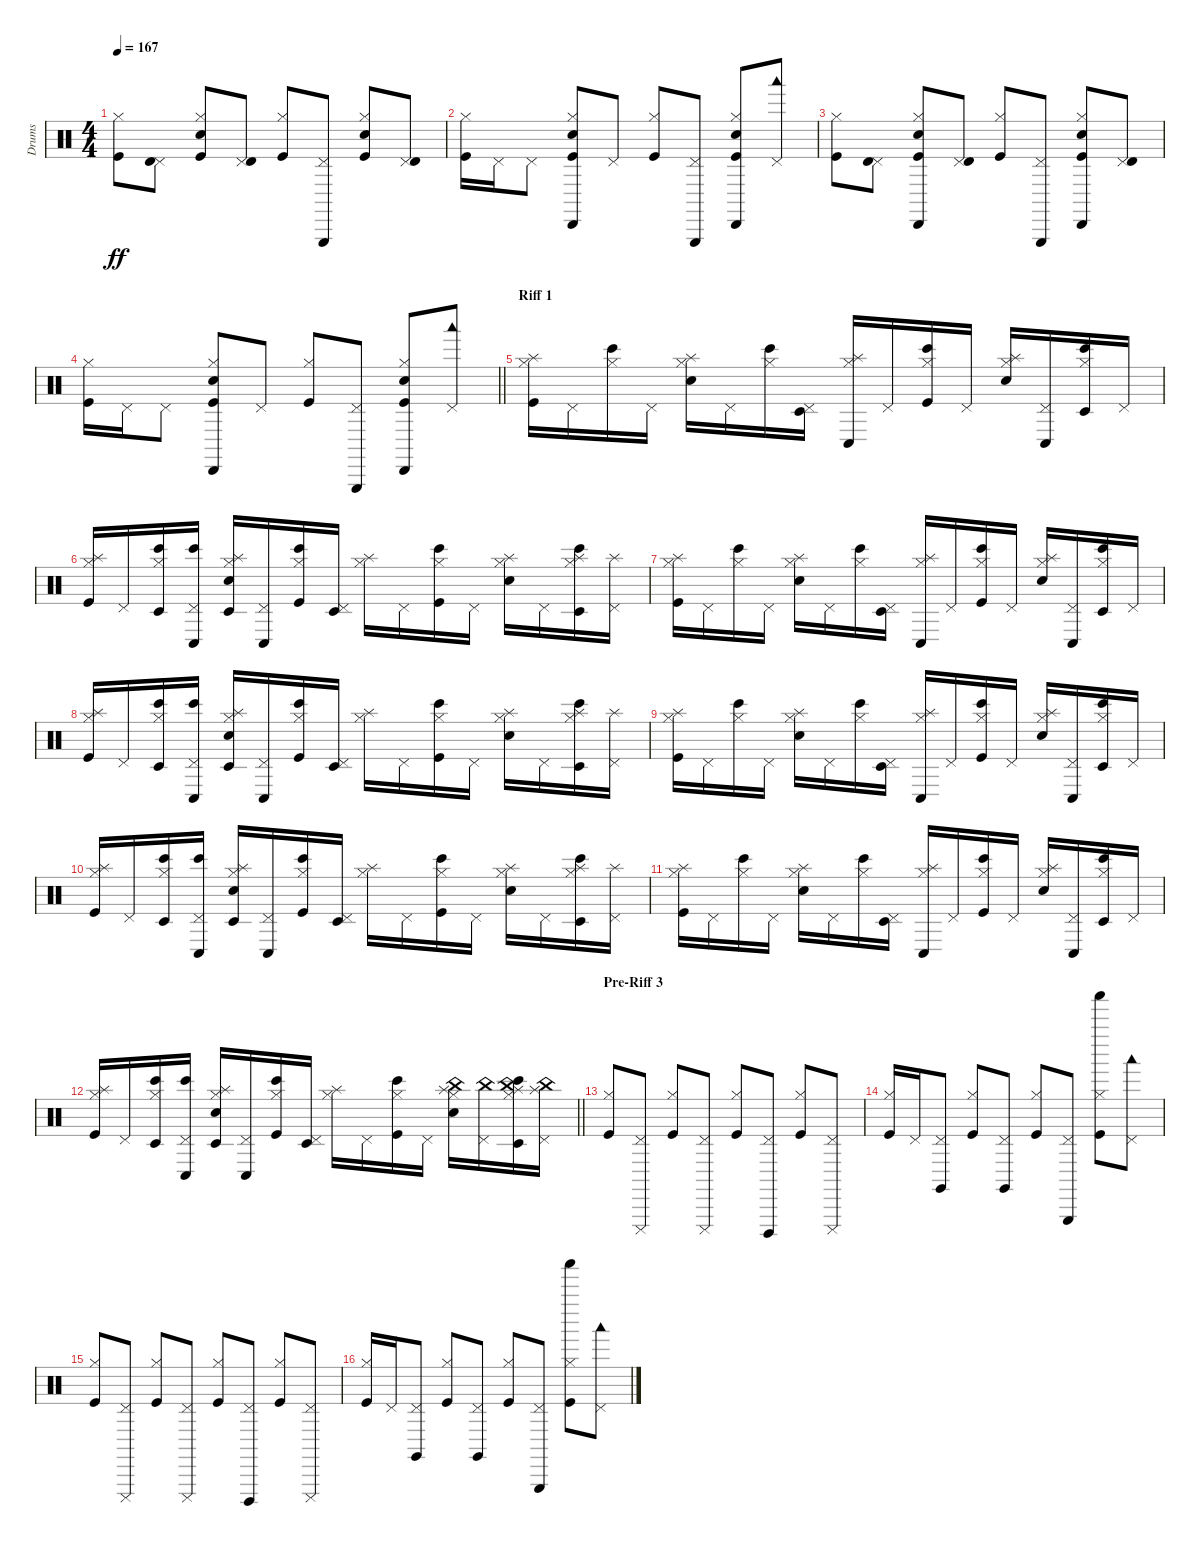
\track ("Drums" "Drums") {instrument percussion}
\staff {score}
\articulation defaults
\ts (4 4)
\tempo 167
\clef neutral
\ks c
("Kick (hit)" "Hi-Hat (closed)").8{dy ff} ("Pedal Hi-Hat (hit)" "Timbale high (hit)").8 ("Kick (hit)" "Hi-Hat (closed)" "Snare (hit) 2").8 ("Pedal Hi-Hat (hit)" "Timbale high (hit)").8 ("Kick (hit)" "Hi-Hat (closed)").8 ("Pedal Hi-Hat (hit)" "Triangle (hit)").8 ("Kick (hit)" "Hi-Hat (closed)" "Snare (hit) 2").8 ("Pedal Hi-Hat (hit)" "Timbale high (hit)").8 |
("Kick (hit)" "Hi-Hat (closed)").16 "Pedal Hi-Hat (hit)".16 "Pedal Hi-Hat (hit)".8 ("Kick (hit)" "Hi-Hat (closed)" "Cabasa (hit)" "Snare (hit) 2").8 "Pedal Hi-Hat (hit)".8 ("Kick (hit)" "Hi-Hat (closed)").8 ("Pedal Hi-Hat (hit)" "Triangle (hit)").8 ("Kick (hit)" "Hi-Hat (closed)" "Cabasa (hit)" "Snare (hit) 2").8 ("Pedal Hi-Hat (hit)" "Woodblock low (hit)").8 |
("Kick (hit)" "Hi-Hat (closed)").8 ("Pedal Hi-Hat (hit)" "Timbale high (hit)").8 ("Kick (hit)" "Hi-Hat (closed)" "Cabasa (hit)" "Snare (hit) 2").8 ("Pedal Hi-Hat (hit)" "Timbale high (hit)").8 ("Kick (hit)" "Hi-Hat (closed)").8 ("Pedal Hi-Hat (hit)" "Triangle (hit)").8 ("Kick (hit)" "Hi-Hat (closed)" "Cabasa (hit)" "Snare (hit) 2").8 ("Pedal Hi-Hat (hit)" "Timbale high (hit)").8 |
\barLineRight lightlight
("Kick (hit)" "Hi-Hat (closed)").16 "Pedal Hi-Hat (hit)".16 "Pedal Hi-Hat (hit)".8 ("Kick (hit)" "Hi-Hat (closed)" "Cabasa (hit)" "Snare (hit) 2").8 "Pedal Hi-Hat (hit)".8 ("Kick (hit)" "Hi-Hat (closed)").8 ("Pedal Hi-Hat (hit)" "Triangle (hit)").8 ("Kick (hit)" "Hi-Hat (closed)" "Cabasa (hit)" "Snare (hit) 2").8 ("Pedal Hi-Hat (hit)" "Woodblock low (hit)").8 |
\section ("" "Riff 1")
("Kick (hit)" "Hi-Hat (closed)" "Splash (hit)").16 "Pedal Hi-Hat (hit)".16 ("Hi-Hat (closed)" "Bongo High (hit)").16 "Pedal Hi-Hat (hit)".16 ("Electric Snare (hit)" "Hi-Hat (closed)" "Splash (hit)").16 "Pedal Hi-Hat (hit)".16 ("Hi-Hat (closed)" "Bongo High (hit)").16 ("Pedal Hi-Hat (hit)" "Timbale low (hit)").16 ("Hi-Hat (closed)" "Splash (hit)" "Conga low (hit)").16 "Pedal Hi-Hat (hit)".16 ("Kick (hit)" "Hi-Hat (closed)" "Bongo High (hit)").16 "Pedal Hi-Hat (hit)".16 ("Electric Snare (hit)" "Hi-Hat (closed)" "Splash (hit)").16 ("Pedal Hi-Hat (hit)" "Conga low (hit)").16 ("Hi-Hat (closed)" "Bongo High (hit)" "Timbale low (hit)").16 "Pedal Hi-Hat (hit)".16 |
("Kick (hit)" "Hi-Hat (closed)" "Splash (hit)").16 "Pedal Hi-Hat (hit)".16 ("Hi-Hat (closed)" "Bongo High (hit)" "Timbale low (hit)").16 ("Pedal Hi-Hat (hit)" "Bongo High (hit)" "Conga low (hit)").16 ("Electric Snare (hit)" "Hi-Hat (closed)" "Splash (hit)" "Timbale low (hit)").16 ("Pedal Hi-Hat (hit)" "Conga low (hit)").16 ("Kick (hit)" "Hi-Hat (closed)" "Bongo High (hit)").16 ("Pedal Hi-Hat (hit)" "Timbale low (hit)").16 ("Hi-Hat (closed)" "Splash (hit)").16 "Pedal Hi-Hat (hit)".16 ("Kick (hit)" "Hi-Hat (closed)" "Bongo High (hit)").16 "Pedal Hi-Hat (hit)".16 ("Electric Snare (hit)" "Hi-Hat (closed)" "Splash (hit)").16 "Pedal Hi-Hat (hit)".16 ("Hi-Hat (closed)" "Splash (hit)" "Bongo High (hit)" "Timbale low (hit)").16 ("Pedal Hi-Hat (hit)" "Splash (hit)").16 |
("Kick (hit)" "Hi-Hat (closed)" "Splash (hit)").16 "Pedal Hi-Hat (hit)".16 ("Hi-Hat (closed)" "Bongo High (hit)").16 "Pedal Hi-Hat (hit)".16 ("Electric Snare (hit)" "Hi-Hat (closed)" "Splash (hit)").16 "Pedal Hi-Hat (hit)".16 ("Hi-Hat (closed)" "Bongo High (hit)").16 ("Pedal Hi-Hat (hit)" "Timbale low (hit)").16 ("Hi-Hat (closed)" "Splash (hit)" "Conga low (hit)").16 "Pedal Hi-Hat (hit)".16 ("Kick (hit)" "Hi-Hat (closed)" "Bongo High (hit)").16 "Pedal Hi-Hat (hit)".16 ("Electric Snare (hit)" "Hi-Hat (closed)" "Splash (hit)").16 ("Pedal Hi-Hat (hit)" "Conga low (hit)").16 ("Hi-Hat (closed)" "Bongo High (hit)" "Timbale low (hit)").16 "Pedal Hi-Hat (hit)".16 |
("Kick (hit)" "Hi-Hat (closed)" "Splash (hit)").16 "Pedal Hi-Hat (hit)".16 ("Hi-Hat (closed)" "Bongo High (hit)" "Timbale low (hit)").16 ("Pedal Hi-Hat (hit)" "Bongo High (hit)" "Conga low (hit)").16 ("Electric Snare (hit)" "Hi-Hat (closed)" "Splash (hit)" "Timbale low (hit)").16 ("Pedal Hi-Hat (hit)" "Conga low (hit)").16 ("Kick (hit)" "Hi-Hat (closed)" "Bongo High (hit)").16 ("Pedal Hi-Hat (hit)" "Timbale low (hit)").16 ("Hi-Hat (closed)" "Splash (hit)").16 "Pedal Hi-Hat (hit)".16 ("Kick (hit)" "Hi-Hat (closed)" "Bongo High (hit)").16 "Pedal Hi-Hat (hit)".16 ("Electric Snare (hit)" "Hi-Hat (closed)" "Splash (hit)").16 "Pedal Hi-Hat (hit)".16 ("Hi-Hat (closed)" "Splash (hit)" "Bongo High (hit)" "Timbale low (hit)").16 ("Pedal Hi-Hat (hit)" "Splash (hit)").16 |
("Kick (hit)" "Hi-Hat (closed)" "Splash (hit)").16 "Pedal Hi-Hat (hit)".16 ("Hi-Hat (closed)" "Bongo High (hit)").16 "Pedal Hi-Hat (hit)".16 ("Electric Snare (hit)" "Hi-Hat (closed)" "Splash (hit)").16 "Pedal Hi-Hat (hit)".16 ("Hi-Hat (closed)" "Bongo High (hit)").16 ("Pedal Hi-Hat (hit)" "Timbale low (hit)").16 ("Hi-Hat (closed)" "Splash (hit)" "Conga low (hit)").16 "Pedal Hi-Hat (hit)".16 ("Kick (hit)" "Hi-Hat (closed)" "Bongo High (hit)").16 "Pedal Hi-Hat (hit)".16 ("Electric Snare (hit)" "Hi-Hat (closed)" "Splash (hit)").16 ("Pedal Hi-Hat (hit)" "Conga low (hit)").16 ("Hi-Hat (closed)" "Bongo High (hit)" "Timbale low (hit)").16 "Pedal Hi-Hat (hit)".16 |
("Kick (hit)" "Hi-Hat (closed)" "Splash (hit)").16 "Pedal Hi-Hat (hit)".16 ("Hi-Hat (closed)" "Bongo High (hit)" "Timbale low (hit)").16 ("Pedal Hi-Hat (hit)" "Bongo High (hit)" "Conga low (hit)").16 ("Electric Snare (hit)" "Hi-Hat (closed)" "Splash (hit)" "Timbale low (hit)").16 ("Pedal Hi-Hat (hit)" "Conga low (hit)").16 ("Kick (hit)" "Hi-Hat (closed)" "Bongo High (hit)").16 ("Pedal Hi-Hat (hit)" "Timbale low (hit)").16 ("Hi-Hat (closed)" "Splash (hit)").16 "Pedal Hi-Hat (hit)".16 ("Kick (hit)" "Hi-Hat (closed)" "Bongo High (hit)").16 "Pedal Hi-Hat (hit)".16 ("Electric Snare (hit)" "Hi-Hat (closed)" "Splash (hit)").16 "Pedal Hi-Hat (hit)".16 ("Hi-Hat (closed)" "Splash (hit)" "Bongo High (hit)" "Timbale low (hit)").16 ("Pedal Hi-Hat (hit)" "Splash (hit)").16 |
("Kick (hit)" "Hi-Hat (closed)" "Splash (hit)").16 "Pedal Hi-Hat (hit)".16 ("Hi-Hat (closed)" "Bongo High (hit)").16 "Pedal Hi-Hat (hit)".16 ("Electric Snare (hit)" "Hi-Hat (closed)" "Splash (hit)").16 "Pedal Hi-Hat (hit)".16 ("Hi-Hat (closed)" "Bongo High (hit)").16 ("Pedal Hi-Hat (hit)" "Timbale low (hit)").16 ("Hi-Hat (closed)" "Splash (hit)" "Conga low (hit)").16 "Pedal Hi-Hat (hit)".16 ("Kick (hit)" "Hi-Hat (closed)" "Bongo High (hit)").16 "Pedal Hi-Hat (hit)".16 ("Electric Snare (hit)" "Hi-Hat (closed)" "Splash (hit)").16 ("Pedal Hi-Hat (hit)" "Conga low (hit)").16 ("Hi-Hat (closed)" "Bongo High (hit)" "Timbale low (hit)").16 "Pedal Hi-Hat (hit)".16 |
\barLineRight lightlight
("Kick (hit)" "Hi-Hat (closed)" "Splash (hit)").16 "Pedal Hi-Hat (hit)".16 ("Hi-Hat (closed)" "Bongo High (hit)" "Timbale low (hit)").16 ("Pedal Hi-Hat (hit)" "Bongo High (hit)" "Conga low (hit)").16 ("Electric Snare (hit)" "Hi-Hat (closed)" "Splash (hit)" "Timbale low (hit)").16 ("Pedal Hi-Hat (hit)" "Conga low (hit)").16 ("Kick (hit)" "Hi-Hat (closed)" "Bongo High (hit)").16 ("Pedal Hi-Hat (hit)" "Timbale low (hit)").16 ("Hi-Hat (closed)" "Splash (hit)").16 "Pedal Hi-Hat (hit)".16 ("Kick (hit)" "Hi-Hat (closed)" "Bongo High (hit)").16 "Pedal Hi-Hat (hit)".16 ("Electric Snare (hit)" "Hi-Hat (closed)" "China (hit)" "Splash (hit)").16 ("Pedal Hi-Hat (hit)" "China (hit)").16 ("Hi-Hat (closed)" "China (hit)" "Splash (hit)" "Bongo High (hit)" "Timbale low (hit)").16 ("Pedal Hi-Hat (hit)" "China (hit)" "Splash (hit)").16 |
\section ("" "Pre-Riff 3")
("Kick (hit)" "Hi-Hat (closed)").8 ("Pedal Hi-Hat (hit)" "Cuica (mute)").8 ("Kick (hit)" "Hi-Hat (closed)").8 ("Pedal Hi-Hat (hit)" "Cuica (mute)").8 ("Kick (hit)" "Hi-Hat (closed)").8 ("Pedal Hi-Hat (hit)" "Cuica (open)").8 ("Kick (hit)" "Hi-Hat (closed)").8 ("Pedal Hi-Hat (hit)" "Cuica (mute)").8 |
("Kick (hit)" "Hi-Hat (closed)").16 "Pedal Hi-Hat (hit)".16 ("Pedal Hi-Hat (hit)" "Claves (hit)").8 ("Kick (hit)" "Hi-Hat (closed)").8 ("Pedal Hi-Hat (hit)" "Claves (hit)").8 ("Kick (hit)" "Hi-Hat (closed)").8 ("Pedal Hi-Hat (hit)" "Triangle (hit)").8 ("Kick (hit)" "Hi-Hat (closed)" "Shaker (hit)").8 ("Pedal Hi-Hat (hit)" "Woodblock low (hit)").8 |
("Kick (hit)" "Hi-Hat (closed)").8 ("Pedal Hi-Hat (hit)" "Cuica (mute)").8 ("Kick (hit)" "Hi-Hat (closed)").8 ("Pedal Hi-Hat (hit)" "Cuica (mute)").8 ("Kick (hit)" "Hi-Hat (closed)").8 ("Pedal Hi-Hat (hit)" "Cuica (open)").8 ("Kick (hit)" "Hi-Hat (closed)").8 ("Pedal Hi-Hat (hit)" "Cuica (mute)").8 |
("Kick (hit)" "Hi-Hat (closed)").16 "Pedal Hi-Hat (hit)".16 ("Pedal Hi-Hat (hit)" "Claves (hit)").8 ("Kick (hit)" "Hi-Hat (closed)").8 ("Pedal Hi-Hat (hit)" "Claves (hit)").8 ("Kick (hit)" "Hi-Hat (closed)").8 ("Pedal Hi-Hat (hit)" "Triangle (hit)").8 ("Kick (hit)" "Hi-Hat (closed)" "Shaker (hit)").8 ("Pedal Hi-Hat (hit)" "Woodblock low (hit)").8
